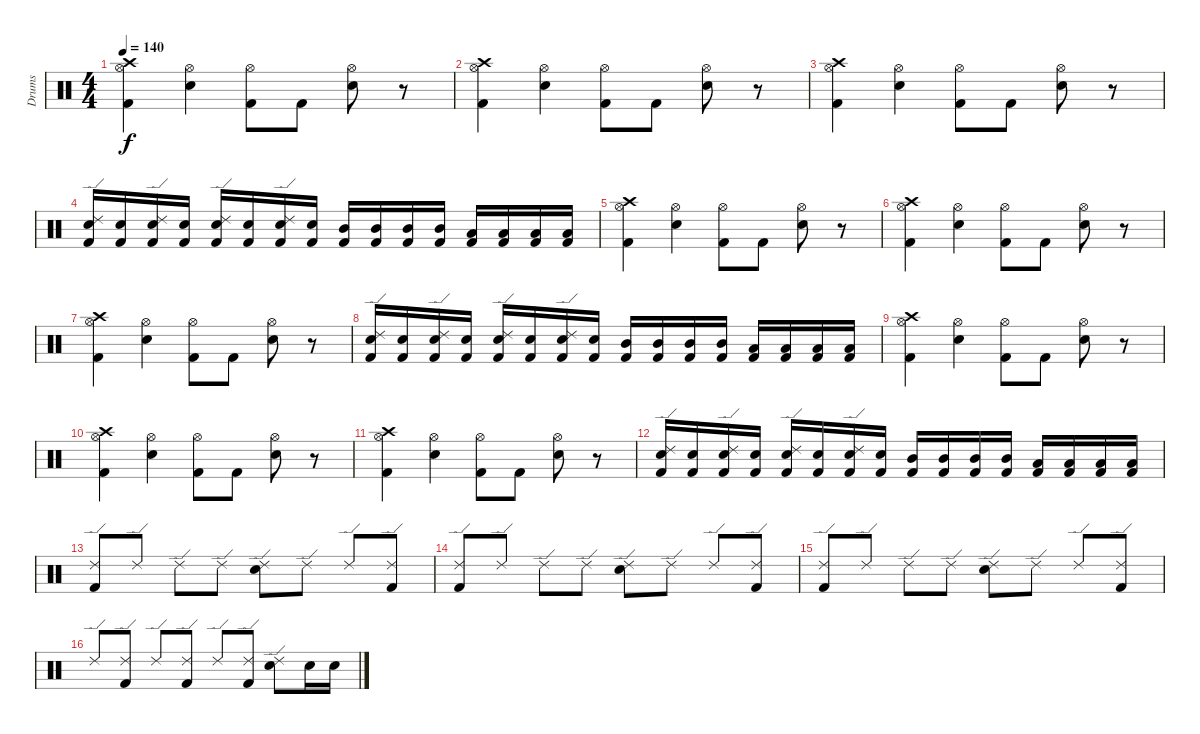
\track ("Drums" "Drums") {instrument percussion}
\staff {score}
\articulation defaults
\ts (4 4)
\tempo 140
\clef neutral
\ks c
("Crash high (hit)" "Hi-Hat (open)" "Kick (hit) 2").4{dy f} ("Hi-Hat (open)" "Snare (hit) 2").4 ("Hi-Hat (open)" "Kick (hit) 2").8 "Kick (hit) 2".8 ("Hi-Hat (open)" "Snare (hit) 2").8 r.8 |
("Crash high (hit)" "Hi-Hat (open)" "Kick (hit) 2").4 ("Hi-Hat (open)" "Snare (hit) 2").4 ("Hi-Hat (open)" "Kick (hit) 2").8 "Kick (hit) 2".8 ("Hi-Hat (open)" "Snare (hit) 2").8 r.8 |
("Crash high (hit)" "Hi-Hat (open)" "Kick (hit) 2").4 ("Hi-Hat (open)" "Snare (hit) 2").4 ("Hi-Hat (open)" "Kick (hit) 2").8 "Kick (hit) 2".8 ("Hi-Hat (open)" "Snare (hit) 2").8 r.8 |
("Ride (edge) 2" "Snare (hit) 2" "Kick (hit) 2").16 ("Snare (hit) 2" "Kick (hit) 2").16 ("Ride (edge) 2" "Snare (hit) 2" "Kick (hit) 2").16 ("Snare (hit) 2" "Kick (hit) 2").16 ("Ride (edge) 2" "Snare (hit) 2" "Kick (hit) 2").16 ("Snare (hit) 2" "Kick (hit) 2").16 ("Ride (edge) 2" "Snare (hit) 2" "Kick (hit) 2").16 ("Snare (hit) 2" "Kick (hit) 2").16 ("Mid Tom (hit)" "Kick (hit) 2").16 ("Mid Tom (hit)" "Kick (hit) 2").16 ("Mid Tom (hit)" "Kick (hit) 2").16 ("Mid Tom (hit)" "Kick (hit) 2").16 ("Low Tom (hit)" "Kick (hit) 2").16 ("Low Tom (hit)" "Kick (hit) 2").16 ("Low Tom (hit)" "Kick (hit) 2").16 ("Low Tom (hit)" "Kick (hit) 2").16 |
("Crash high (hit)" "Hi-Hat (open)" "Kick (hit) 2").4 ("Hi-Hat (open)" "Snare (hit) 2").4 ("Hi-Hat (open)" "Kick (hit) 2").8 "Kick (hit) 2".8 ("Hi-Hat (open)" "Snare (hit) 2").8 r.8 |
("Crash high (hit)" "Hi-Hat (open)" "Kick (hit) 2").4 ("Hi-Hat (open)" "Snare (hit) 2").4 ("Hi-Hat (open)" "Kick (hit) 2").8 "Kick (hit) 2".8 ("Hi-Hat (open)" "Snare (hit) 2").8 r.8 |
("Crash high (hit)" "Hi-Hat (open)" "Kick (hit) 2").4 ("Hi-Hat (open)" "Snare (hit) 2").4 ("Hi-Hat (open)" "Kick (hit) 2").8 "Kick (hit) 2".8 ("Hi-Hat (open)" "Snare (hit) 2").8 r.8 |
("Ride (edge) 2" "Snare (hit) 2" "Kick (hit) 2").16 ("Snare (hit) 2" "Kick (hit) 2").16 ("Ride (edge) 2" "Snare (hit) 2" "Kick (hit) 2").16 ("Snare (hit) 2" "Kick (hit) 2").16 ("Ride (edge) 2" "Snare (hit) 2" "Kick (hit) 2").16 ("Snare (hit) 2" "Kick (hit) 2").16 ("Ride (edge) 2" "Snare (hit) 2" "Kick (hit) 2").16 ("Snare (hit) 2" "Kick (hit) 2").16 ("Mid Tom (hit)" "Kick (hit) 2").16 ("Mid Tom (hit)" "Kick (hit) 2").16 ("Mid Tom (hit)" "Kick (hit) 2").16 ("Mid Tom (hit)" "Kick (hit) 2").16 ("Low Tom (hit)" "Kick (hit) 2").16 ("Low Tom (hit)" "Kick (hit) 2").16 ("Low Tom (hit)" "Kick (hit) 2").16 ("Low Tom (hit)" "Kick (hit) 2").16 |
("Crash high (hit)" "Hi-Hat (open)" "Kick (hit) 2").4 ("Hi-Hat (open)" "Snare (hit) 2").4 ("Hi-Hat (open)" "Kick (hit) 2").8 "Kick (hit) 2".8 ("Hi-Hat (open)" "Snare (hit) 2").8 r.8 |
("Crash high (hit)" "Hi-Hat (open)" "Kick (hit) 2").4 ("Hi-Hat (open)" "Snare (hit) 2").4 ("Hi-Hat (open)" "Kick (hit) 2").8 "Kick (hit) 2".8 ("Hi-Hat (open)" "Snare (hit) 2").8 r.8 |
("Crash high (hit)" "Hi-Hat (open)" "Kick (hit) 2").4 ("Hi-Hat (open)" "Snare (hit) 2").4 ("Hi-Hat (open)" "Kick (hit) 2").8 "Kick (hit) 2".8 ("Hi-Hat (open)" "Snare (hit) 2").8 r.8 |
("Ride (edge) 2" "Snare (hit) 2" "Kick (hit) 2").16 ("Snare (hit) 2" "Kick (hit) 2").16 ("Ride (edge) 2" "Snare (hit) 2" "Kick (hit) 2").16 ("Snare (hit) 2" "Kick (hit) 2").16 ("Ride (edge) 2" "Snare (hit) 2" "Kick (hit) 2").16 ("Snare (hit) 2" "Kick (hit) 2").16 ("Ride (edge) 2" "Snare (hit) 2" "Kick (hit) 2").16 ("Snare (hit) 2" "Kick (hit) 2").16 ("Mid Tom (hit)" "Kick (hit) 2").16 ("Mid Tom (hit)" "Kick (hit) 2").16 ("Mid Tom (hit)" "Kick (hit) 2").16 ("Mid Tom (hit)" "Kick (hit) 2").16 ("Low Tom (hit)" "Kick (hit) 2").16 ("Low Tom (hit)" "Kick (hit) 2").16 ("Low Tom (hit)" "Kick (hit) 2").16 ("Low Tom (hit)" "Kick (hit) 2").16 |
("Ride (edge) 2" "Kick (hit) 2").8 "Ride (edge) 2".8 "Ride (edge) 2".8 "Ride (edge) 2".8 ("Ride (edge) 2" "Snare (hit) 2").8 "Ride (edge) 2".8 "Ride (edge) 2".8 ("Ride (edge) 2" "Kick (hit) 2").8 |
("Ride (edge) 2" "Kick (hit) 2").8 "Ride (edge) 2".8 "Ride (edge) 2".8 "Ride (edge) 2".8 ("Ride (edge) 2" "Snare (hit) 2").8 "Ride (edge) 2".8 "Ride (edge) 2".8 ("Ride (edge) 2" "Kick (hit) 2").8 |
("Ride (edge) 2" "Kick (hit) 2").8 "Ride (edge) 2".8 "Ride (edge) 2".8 "Ride (edge) 2".8 ("Ride (edge) 2" "Snare (hit) 2").8 "Ride (edge) 2".8 "Ride (edge) 2".8 ("Ride (edge) 2" "Kick (hit) 2").8 |
"Ride (edge) 2".8 ("Ride (edge) 2" "Kick (hit) 2").8 "Ride (edge) 2".8 ("Ride (edge) 2" "Kick (hit) 2").8 "Ride (edge) 2".8 ("Ride (edge) 2" "Kick (hit) 2").8 ("Ride (edge) 2" "Snare (hit) 2").8 "Snare (hit) 2".16 "Snare (hit) 2".16
